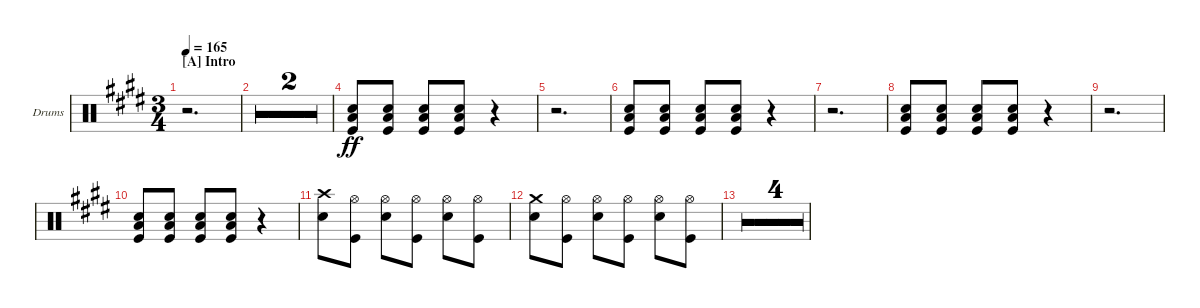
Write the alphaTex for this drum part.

\defaultSystemsLayout 4
\bracketExtendMode groupsimilarinstruments
\firstSystemTrackNameOrientation horizontal
\otherSystemsTrackNameOrientation horizontal
\track ("Dave Grohl (Drums)" "Drums") {multiBarRest instrument percussion}
\staff {score}
\articulation defaults
\ts (3 4)
\section ("A" "Intro")
\tempo 165
\clef neutral
\ks e
r.2{d dy ff} |
r.2{d} |
r.2{d} |
("Kick (hit)" "Snare (hit) 2" "Low Tom (hit)").8 ("Kick (hit)" "Snare (hit) 2" "Low Tom (hit)").8 ("Kick (hit)" "Snare (hit) 2" "Low Tom (hit)").8 ("Kick (hit)" "Snare (hit) 2" "Low Tom (hit)").8 r.4 |
r.2{d} |
("Kick (hit)" "Snare (hit) 2" "Low Tom (hit)").8 ("Kick (hit)" "Snare (hit) 2" "Low Tom (hit)").8 ("Kick (hit)" "Snare (hit) 2" "Low Tom (hit)").8 ("Kick (hit)" "Snare (hit) 2" "Low Tom (hit)").8 r.4 |
r.2{d} |
("Kick (hit)" "Snare (hit) 2" "Low Tom (hit)").8 ("Kick (hit)" "Snare (hit) 2" "Low Tom (hit)").8 ("Kick (hit)" "Snare (hit) 2" "Low Tom (hit)").8 ("Kick (hit)" "Snare (hit) 2" "Low Tom (hit)").8 r.4 |
r.2{d} |
("Kick (hit)" "Snare (hit) 2" "Low Tom (hit)").8 ("Kick (hit)" "Snare (hit) 2" "Low Tom (hit)").8 ("Kick (hit)" "Snare (hit) 2" "Low Tom (hit)").8 ("Kick (hit)" "Snare (hit) 2" "Low Tom (hit)").8 r.4 |
("Snare (hit) 2" "Crash high (hit)").8 ("Kick (hit)" "Hi-Hat (open)").8 ("Snare (hit) 2" "Hi-Hat (open)").8 ("Kick (hit)" "Hi-Hat (open)").8 ("Snare (hit) 2" "Hi-Hat (open)").8 ("Kick (hit)" "Hi-Hat (open)").8 |
("Snare (hit) 2" "Crash medium (hit)").8 ("Kick (hit)" "Hi-Hat (open)").8 ("Snare (hit) 2" "Hi-Hat (open)").8 ("Kick (hit)" "Hi-Hat (open)").8 ("Snare (hit) 2" "Hi-Hat (open)").8 ("Kick (hit)" "Hi-Hat (open)").8 |
\simile firstofdouble
|
\simile secondofdouble
|
\simile firstofdouble
|
\simile secondofdouble
